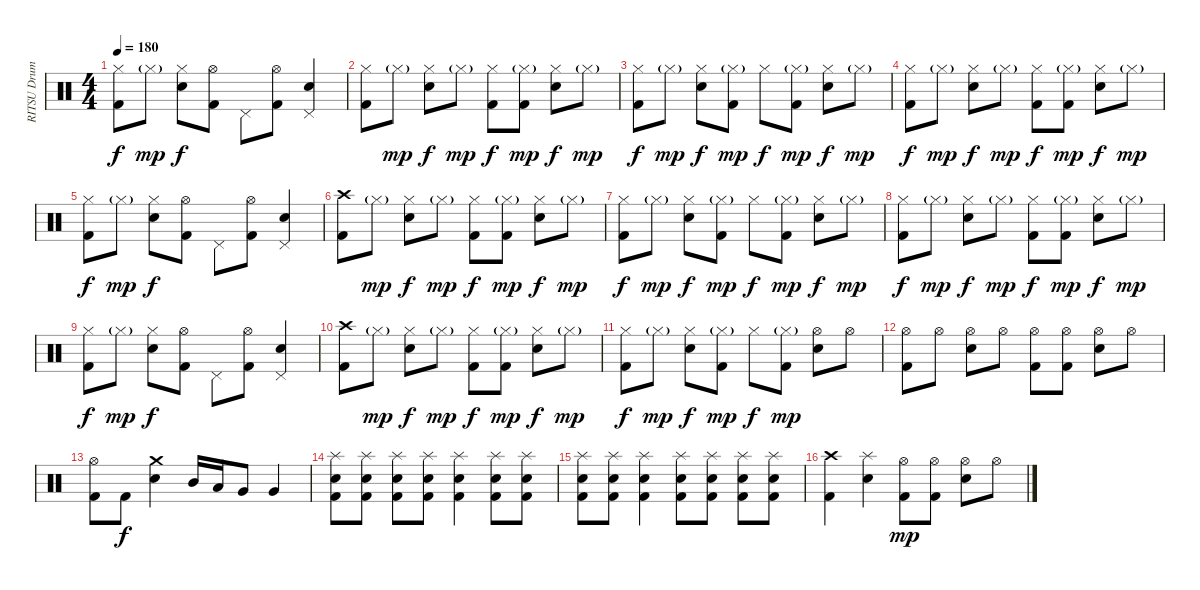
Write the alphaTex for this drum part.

\track ("RITSU Drums" "RITSU Drum") {instrument percussion}
\staff {score}
\articulation defaults
\ts (4 4)
\tempo 180
\clef neutral
\ks c
("Hi-Hat (closed)" "Kick (hit) 2").8{dy f} "Hi-Hat (closed)"{g}.8{dy mp} ("Hi-Hat (closed)" "Snare (hit) 2").8{dy f} ("Hi-Hat (open)" "Kick (hit) 2").8 "Pedal Hi-Hat (hit)".8 ("Hi-Hat (open)" "Kick (hit) 2").8 ("Pedal Hi-Hat (hit)" "Snare (hit) 2").4 |
("Hi-Hat (closed)" "Kick (hit) 2").8 "Hi-Hat (closed)"{g}.8{dy mp} ("Hi-Hat (closed)" "Snare (hit) 2").8{dy f} "Hi-Hat (closed)"{g}.8{dy mp} ("Hi-Hat (closed)" "Kick (hit) 2").8{dy f} ("Hi-Hat (closed)"{g} "Kick (hit) 2").8{dy mp} ("Hi-Hat (closed)" "Snare (hit) 2").8{dy f} "Hi-Hat (closed)"{g}.8{dy mp} |
("Hi-Hat (closed)" "Kick (hit) 2").8{dy f} "Hi-Hat (closed)"{g}.8{dy mp} ("Hi-Hat (closed)" "Snare (hit) 2").8{dy f} ("Hi-Hat (closed)"{g} "Kick (hit) 2").8{dy mp} "Hi-Hat (closed)".8{dy f} ("Hi-Hat (closed)"{g} "Kick (hit) 2").8{dy mp} ("Hi-Hat (closed)" "Snare (hit) 2").8{dy f} "Hi-Hat (closed)"{g}.8{dy mp} |
("Hi-Hat (closed)" "Kick (hit) 2").8{dy f} "Hi-Hat (closed)"{g}.8{dy mp} ("Hi-Hat (closed)" "Snare (hit) 2").8{dy f} "Hi-Hat (closed)"{g}.8{dy mp} ("Hi-Hat (closed)" "Kick (hit) 2").8{dy f} ("Hi-Hat (closed)"{g} "Kick (hit) 2").8{dy mp} ("Hi-Hat (closed)" "Snare (hit) 2").8{dy f} "Hi-Hat (closed)"{g}.8{dy mp} |
("Hi-Hat (closed)" "Kick (hit) 2").8{dy f} "Hi-Hat (closed)"{g}.8{dy mp} ("Hi-Hat (closed)" "Snare (hit) 2").8{dy f} ("Hi-Hat (open)" "Kick (hit) 2").8 "Pedal Hi-Hat (hit)".8 ("Hi-Hat (open)" "Kick (hit) 2").8 ("Pedal Hi-Hat (hit)" "Snare (hit) 2").4 |
("Crash high (hit)" "Kick (hit) 2").8 "Hi-Hat (closed)"{g}.8{dy mp} ("Hi-Hat (closed)" "Snare (hit) 2").8{dy f} "Hi-Hat (closed)"{g}.8{dy mp} ("Hi-Hat (closed)" "Kick (hit) 2").8{dy f} ("Hi-Hat (closed)"{g} "Kick (hit) 2").8{dy mp} ("Hi-Hat (closed)" "Snare (hit) 2").8{dy f} "Hi-Hat (closed)"{g}.8{dy mp} |
("Hi-Hat (closed)" "Kick (hit) 2").8{dy f} "Hi-Hat (closed)"{g}.8{dy mp} ("Hi-Hat (closed)" "Snare (hit) 2").8{dy f} ("Hi-Hat (closed)"{g} "Kick (hit) 2").8{dy mp} "Hi-Hat (closed)".8{dy f} ("Hi-Hat (closed)"{g} "Kick (hit) 2").8{dy mp} ("Hi-Hat (closed)" "Snare (hit) 2").8{dy f} "Hi-Hat (closed)"{g}.8{dy mp} |
("Hi-Hat (closed)" "Kick (hit) 2").8{dy f} "Hi-Hat (closed)"{g}.8{dy mp} ("Hi-Hat (closed)" "Snare (hit) 2").8{dy f} "Hi-Hat (closed)"{g}.8{dy mp} ("Hi-Hat (closed)" "Kick (hit) 2").8{dy f} ("Hi-Hat (closed)"{g} "Kick (hit) 2").8{dy mp} ("Hi-Hat (closed)" "Snare (hit) 2").8{dy f} "Hi-Hat (closed)"{g}.8{dy mp} |
("Hi-Hat (closed)" "Kick (hit) 2").8{dy f} "Hi-Hat (closed)"{g}.8{dy mp} ("Hi-Hat (closed)" "Snare (hit) 2").8{dy f} ("Hi-Hat (open)" "Kick (hit) 2").8 "Pedal Hi-Hat (hit)".8 ("Hi-Hat (open)" "Kick (hit) 2").8 ("Pedal Hi-Hat (hit)" "Snare (hit) 2").4 |
("Crash high (hit)" "Kick (hit) 2").8 "Hi-Hat (closed)"{g}.8{dy mp} ("Hi-Hat (closed)" "Snare (hit) 2").8{dy f} "Hi-Hat (closed)"{g}.8{dy mp} ("Hi-Hat (closed)" "Kick (hit) 2").8{dy f} ("Hi-Hat (closed)"{g} "Kick (hit) 2").8{dy mp} ("Hi-Hat (closed)" "Snare (hit) 2").8{dy f} "Hi-Hat (closed)"{g}.8{dy mp} |
("Hi-Hat (closed)" "Kick (hit) 2").8{dy f} "Hi-Hat (closed)"{g}.8{dy mp} ("Hi-Hat (closed)" "Snare (hit) 2").8{dy f} ("Hi-Hat (closed)"{g} "Kick (hit) 2").8{dy mp} "Hi-Hat (closed)".8{dy f} ("Hi-Hat (closed)"{g} "Kick (hit) 2").8{dy mp} ("Hi-Hat (open)" "Snare (hit) 2").8 "Hi-Hat (open)".8 |
("Hi-Hat (open)" "Kick (hit) 2").8 "Hi-Hat (open)".8 ("Hi-Hat (open)" "Snare (hit) 2").8 "Hi-Hat (open)".8 ("Hi-Hat (open)" "Kick (hit) 2").8 ("Hi-Hat (open)" "Kick (hit) 2").8 ("Hi-Hat (open)" "Snare (hit) 2").8 "Hi-Hat (open)".8 |
("Hi-Hat (open)" "Kick (hit) 2").8 "Kick (hit) 2".8{dy f} ("Crash medium (hit)" "Snare (hit) 2").4 "Mid Tom (hit)".16 "Low Tom (hit)".16 "Very Low Tom (hit)".8 "Very Low Tom (hit)".4 |
("Splash (hit)" "Snare (hit) 2" "Kick (hit) 2").8 ("Splash (hit)" "Snare (hit) 2" "Kick (hit) 2").8 ("Splash (hit)" "Snare (hit) 2" "Kick (hit) 2").8 ("Splash (hit)" "Snare (hit) 2" "Kick (hit) 2").8 ("Splash (hit)" "Snare (hit) 2" "Kick (hit) 2").4 ("Splash (hit)" "Snare (hit) 2" "Kick (hit) 2").8 ("Splash (hit)" "Snare (hit) 2" "Kick (hit) 2").8 |
("Splash (hit)" "Snare (hit) 2" "Kick (hit) 2").8 ("Splash (hit)" "Snare (hit) 2" "Kick (hit) 2").8 ("Splash (hit)" "Snare (hit) 2" "Kick (hit) 2").4 ("Splash (hit)" "Snare (hit) 2" "Kick (hit) 2").8 ("Splash (hit)" "Snare (hit) 2" "Kick (hit) 2").8 ("Splash (hit)" "Snare (hit) 2" "Kick (hit) 2").8 ("Splash (hit)" "Snare (hit) 2" "Kick (hit) 2").8 |
("Crash high (hit)" "Kick (hit) 2").4 ("Splash (hit)" "Snare (hit) 2").4 ("Hi-Hat (open)" "Kick (hit) 2").8{dy mp} ("Hi-Hat (open)" "Kick (hit) 2").8 ("Hi-Hat (open)" "Snare (hit) 2").8 "Hi-Hat (open)".8
